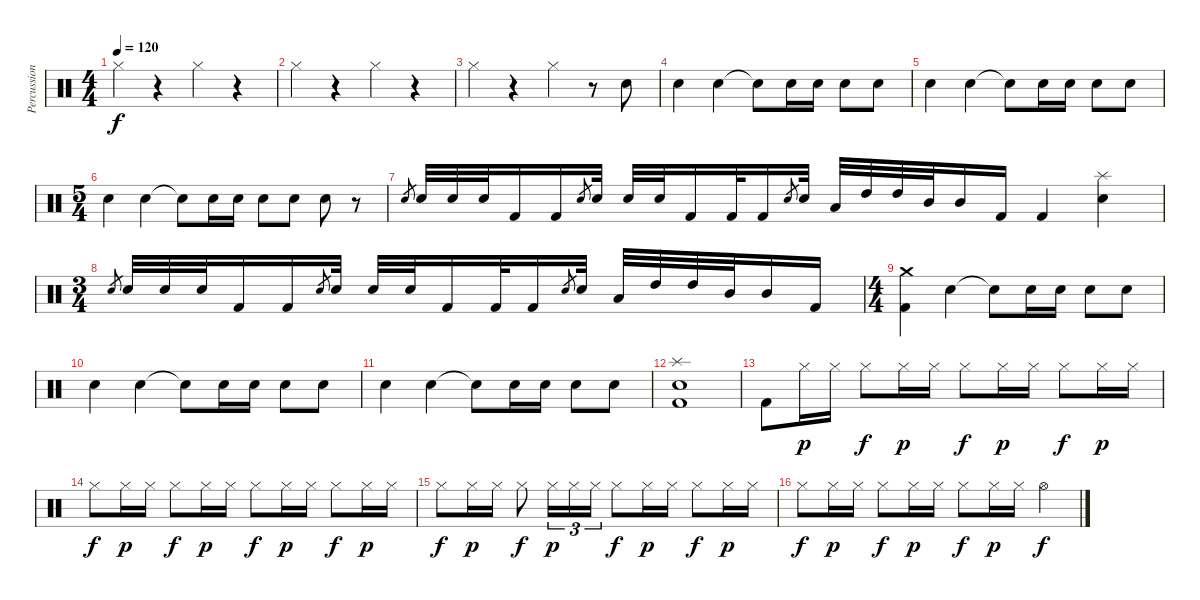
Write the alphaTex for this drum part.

\track ("Percussions" "Percussion") {instrument percussion}
\staff {score}
\articulation defaults
\ts (4 4)
\tempo 120
\clef neutral
\ks c "Hi-Hat (closed)".4{dy f}
r.4 "Hi-Hat (closed)".4 r.4 |
"Hi-Hat (closed)".4 r.4 "Hi-Hat (closed)".4 r.4 |
"Hi-Hat (closed)".4 r.4 "Hi-Hat (closed)".4 r.8 "Electric Snare (hit)".8 |
"Electric Snare (hit)".4 "Electric Snare (hit)".4 "Snare (hit)"{t}.8 "Electric Snare (hit)".16 "Electric Snare (hit)".16 "Electric Snare (hit)".8 "Electric Snare (hit)".8 |
"Electric Snare (hit)".4 "Electric Snare (hit)".4 "Snare (hit)"{t}.8 "Electric Snare (hit)".16 "Electric Snare (hit)".16 "Electric Snare (hit)".8 "Electric Snare (hit)".8 |
\ts (5 4)
"Electric Snare (hit)".4 "Electric Snare (hit)".4 "Snare (hit)"{t}.8 "Electric Snare (hit)".16 "Electric Snare (hit)".16 "Electric Snare (hit)".8 "Electric Snare (hit)".8 "Electric Snare (hit)".8 r.8 |
"Electric Snare (hit)".8{gr} "Electric Snare (hit)".32 "Electric Snare (hit)".32 "Electric Snare (hit)".32 "Kick (hit) 2".16 "Kick (hit) 2".16 "Electric Snare (hit)".8{gr} "Electric Snare (hit)".32 "Electric Snare (hit)".32 "Electric Snare (hit)".32 "Kick (hit) 2".16 "Kick (hit) 2".32 "Kick (hit) 2".16 "Electric Snare (hit)".8{gr} "Electric Snare (hit)".32 "Low Tom (hit)".32 "High Tom (hit)".32 "High Tom (hit)".32 "Mid Tom (hit)".32 "Mid Tom (hit)".16 "Kick (hit) 2".16 "Kick (hit) 2".4 ("Splash (hit)" "Electric Snare (hit)").4 |
\ts (3 4)
"Electric Snare (hit)".8{gr} "Electric Snare (hit)".32 "Electric Snare (hit)".32 "Electric Snare (hit)".32 "Kick (hit) 2".16 "Kick (hit) 2".16 "Electric Snare (hit)".8{gr} "Electric Snare (hit)".32 "Electric Snare (hit)".32 "Electric Snare (hit)".32 "Kick (hit) 2".16 "Kick (hit) 2".32 "Kick (hit) 2".16 "Electric Snare (hit)".8{gr} "Electric Snare (hit)".32 "Low Tom (hit)".32 "High Tom (hit)".32 "High Tom (hit)".32 "Mid Tom (hit)".32 "Mid Tom (hit)".16 "Kick (hit) 2".16 |
\ts (4 4)
("Crash medium (hit)" "Kick (hit) 2").4 "Electric Snare (hit)".4 "Snare (hit)"{t}.8 "Electric Snare (hit)".16 "Electric Snare (hit)".16 "Electric Snare (hit)".8 "Electric Snare (hit)".8 |
"Electric Snare (hit)".4 "Electric Snare (hit)".4 "Snare (hit)"{t}.8 "Electric Snare (hit)".16 "Electric Snare (hit)".16 "Electric Snare (hit)".8 "Electric Snare (hit)".8 |
"Electric Snare (hit)".4 "Electric Snare (hit)".4 "Snare (hit)"{t}.8 "Electric Snare (hit)".16 "Electric Snare (hit)".16 "Electric Snare (hit)".8 "Electric Snare (hit)".8 |
("Splash (hit)" "Electric Snare (hit)" "Kick (hit) 2").1 |
"Kick (hit) 2".8 "Hi-Hat (closed)".16{dy p} "Hi-Hat (closed)".16 "Hi-Hat (closed)".8{dy f} "Hi-Hat (closed)".16{dy p} "Hi-Hat (closed)".16 "Hi-Hat (closed)".8{dy f} "Hi-Hat (closed)".16{dy p} "Hi-Hat (closed)".16 "Hi-Hat (closed)".8{dy f} "Hi-Hat (closed)".16{dy p} "Hi-Hat (closed)".16 |
"Hi-Hat (closed)".8{dy f} "Hi-Hat (closed)".16{dy p} "Hi-Hat (closed)".16 "Hi-Hat (closed)".8{dy f} "Hi-Hat (closed)".16{dy p} "Hi-Hat (closed)".16 "Hi-Hat (closed)".8{dy f} "Hi-Hat (closed)".16{dy p} "Hi-Hat (closed)".16 "Hi-Hat (closed)".8{dy f} "Hi-Hat (closed)".16{dy p} "Hi-Hat (closed)".16 |
"Hi-Hat (closed)".8{dy f} "Hi-Hat (closed)".16{dy p} "Hi-Hat (closed)".16 "Hi-Hat (closed)".8{dy f} "Hi-Hat (closed)".16{tu (3 2) dy p} "Hi-Hat (closed)".16{tu (3 2)} "Hi-Hat (closed)".16{tu (3 2)} "Hi-Hat (closed)".8{dy f} "Hi-Hat (closed)".16{dy p} "Hi-Hat (closed)".16 "Hi-Hat (closed)".8{dy f} "Hi-Hat (closed)".16{dy p} "Hi-Hat (closed)".16 |
"Hi-Hat (closed)".8{dy f} "Hi-Hat (closed)".16{dy p} "Hi-Hat (closed)".16 "Hi-Hat (closed)".8{dy f} "Hi-Hat (closed)".16{dy p} "Hi-Hat (closed)".16 "Hi-Hat (closed)".8{dy f} "Hi-Hat (closed)".16{dy p} "Hi-Hat (closed)".16 "Hi-Hat (open)".4{dy f}
